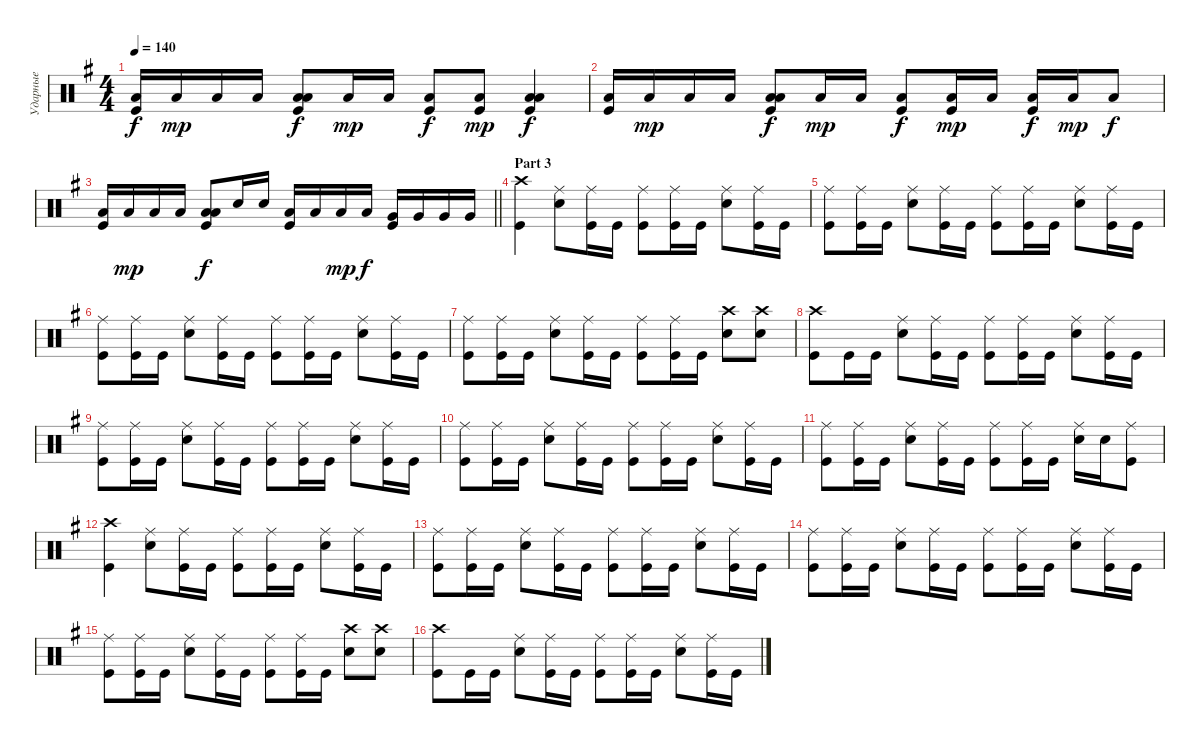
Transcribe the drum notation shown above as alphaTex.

\track ("Ударные" "Ударные") {instrument percussion}
\staff {score}
\articulation defaults
\ts (4 4)
\tempo 140
\clef neutral
\ks eminor
("Low Tom (hit)" "Kick (hit)").16{dy f} "Low Tom (hit)".16{dy mp} "Low Tom (hit)".16 "Low Tom (hit)".16 ("Low Tom (hit)" "Low Tom (hit)" "Kick (hit)").8{bd 120 dy f} "Low Tom (hit)".16{dy mp} "Low Tom (hit)".16 ("Kick (hit)" "Low Tom (hit)").8{dy f} ("Low Tom (hit)" "Kick (hit)").8{dy mp} ("Low Tom (hit)" "Low Tom (hit)" "Kick (hit)").4{bd 120 dy f} |
("Low Tom (hit)" "Kick (hit)").16 "Low Tom (hit)".16{dy mp} "Low Tom (hit)".16 "Low Tom (hit)".16 ("Low Tom (hit)" "Low Tom (hit)" "Kick (hit)").8{bd 120 dy f} "Low Tom (hit)".16{dy mp} "Low Tom (hit)".16 ("Kick (hit)" "Low Tom (hit)").8{dy f} ("Low Tom (hit)" "Kick (hit)").16{dy mp} "Low Tom (hit)".16 ("Low Tom (hit)" "Kick (hit)").16{bd 120 dy f} "Low Tom (hit)".16{dy mp} "Low Tom (hit)".8{dy f} |
\barLineRight lightlight
("Low Tom (hit)" "Kick (hit)").16 "Low Tom (hit)".16{dy mp} "Low Tom (hit)".16 "Low Tom (hit)".16 ("Low Tom (hit)" "Low Tom (hit)" "Kick (hit)").8{bd 120 dy f} "Snare (hit) 2".16 "Snare (hit) 2".16 ("Kick (hit)" "Low Tom (hit)").16 "Low Tom (hit)".16 "Low Tom (hit)".16{dy mp} "Low Tom (hit)".16{dy f} ("Very Low Tom (hit)" "Kick (hit)").16{bd 120} "Very Low Tom (hit)".16 "Very Low Tom (hit)".16 "Very Low Tom (hit)".16 |
\section ("" "Part 3")
("Kick (hit)" "Crash high (hit)").4 ("Snare (hit) 2" "Ride (middle)").8 ("Kick (hit)" "Ride (middle)").16 "Kick (hit)".16 ("Kick (hit)" "Ride (middle)").8 ("Kick (hit)" "Ride (middle)").16 "Kick (hit)".16 ("Snare (hit) 2" "Ride (middle)").8 ("Kick (hit)" "Ride (middle)").16 "Kick (hit)".16 |
("Kick (hit)" "Ride (middle)").8 ("Kick (hit)" "Ride (middle)").16 "Kick (hit)".16 ("Snare (hit) 2" "Ride (middle)").8 ("Kick (hit)" "Ride (middle)").16 "Kick (hit)".16 ("Kick (hit)" "Ride (middle)").8 ("Kick (hit)" "Ride (middle)").16 "Kick (hit)".16 ("Snare (hit) 2" "Ride (middle)").8 ("Kick (hit)" "Ride (middle)").16 "Kick (hit)".16 |
("Kick (hit)" "Ride (middle)").8 ("Kick (hit)" "Ride (middle)").16 "Kick (hit)".16 ("Snare (hit) 2" "Ride (middle)").8 ("Kick (hit)" "Ride (middle)").16 "Kick (hit)".16 ("Kick (hit)" "Ride (middle)").8 ("Kick (hit)" "Ride (middle)").16 "Kick (hit)".16 ("Snare (hit) 2" "Ride (middle)").8 ("Kick (hit)" "Ride (middle)").16 "Kick (hit)".16 |
("Kick (hit)" "Ride (middle)").8 ("Kick (hit)" "Ride (middle)").16 "Kick (hit)".16 ("Snare (hit) 2" "Ride (middle)").8 ("Kick (hit)" "Ride (middle)").16 "Kick (hit)".16 ("Kick (hit)" "Ride (middle)").8 ("Kick (hit)" "Ride (middle)").16 "Kick (hit)".16 ("Snare (hit) 2" "Crash high (hit)").8 ("Snare (hit) 2" "Crash high (hit)").8 |
("Kick (hit)" "Crash high (hit)").8 "Kick (hit)".16 "Kick (hit)".16 ("Snare (hit) 2" "Ride (middle)").8 ("Kick (hit)" "Ride (middle)").16 "Kick (hit)".16 ("Kick (hit)" "Ride (middle)").8 ("Kick (hit)" "Ride (middle)").16 "Kick (hit)".16 ("Snare (hit) 2" "Ride (middle)").8 ("Kick (hit)" "Ride (middle)").16 "Kick (hit)".16 |
("Kick (hit)" "Ride (middle)").8 ("Kick (hit)" "Ride (middle)").16 "Kick (hit)".16 ("Snare (hit) 2" "Ride (middle)").8 ("Kick (hit)" "Ride (middle)").16 "Kick (hit)".16 ("Kick (hit)" "Ride (middle)").8 ("Kick (hit)" "Ride (middle)").16 "Kick (hit)".16 ("Snare (hit) 2" "Ride (middle)").8 ("Kick (hit)" "Ride (middle)").16 "Kick (hit)".16 |
("Kick (hit)" "Ride (middle)").8 ("Kick (hit)" "Ride (middle)").16 "Kick (hit)".16 ("Snare (hit) 2" "Ride (middle)").8 ("Kick (hit)" "Ride (middle)").16 "Kick (hit)".16 ("Kick (hit)" "Ride (middle)").8 ("Kick (hit)" "Ride (middle)").16 "Kick (hit)".16 ("Snare (hit) 2" "Ride (middle)").8 ("Kick (hit)" "Ride (middle)").16 "Kick (hit)".16 |
("Kick (hit)" "Ride (middle)").8 ("Kick (hit)" "Ride (middle)").16 "Kick (hit)".16 ("Snare (hit) 2" "Ride (middle)").8 ("Kick (hit)" "Ride (middle)").16 "Kick (hit)".16 ("Kick (hit)" "Ride (middle)").8 ("Kick (hit)" "Ride (middle)").16 "Kick (hit)".16 ("Snare (hit) 2" "Ride (middle)").16 "Snare (hit) 2".16 ("Kick (hit)" "Ride (middle)").8 |
("Kick (hit)" "Crash high (hit)").4 ("Snare (hit) 2" "Ride (middle)").8 ("Kick (hit)" "Ride (middle)").16 "Kick (hit)".16 ("Kick (hit)" "Ride (middle)").8 ("Kick (hit)" "Ride (middle)").16 "Kick (hit)".16 ("Snare (hit) 2" "Ride (middle)").8 ("Kick (hit)" "Ride (middle)").16 "Kick (hit)".16 |
("Kick (hit)" "Ride (middle)").8 ("Kick (hit)" "Ride (middle)").16 "Kick (hit)".16 ("Snare (hit) 2" "Ride (middle)").8 ("Kick (hit)" "Ride (middle)").16 "Kick (hit)".16 ("Kick (hit)" "Ride (middle)").8 ("Kick (hit)" "Ride (middle)").16 "Kick (hit)".16 ("Snare (hit) 2" "Ride (middle)").8 ("Kick (hit)" "Ride (middle)").16 "Kick (hit)".16 |
("Kick (hit)" "Ride (middle)").8 ("Kick (hit)" "Ride (middle)").16 "Kick (hit)".16 ("Snare (hit) 2" "Ride (middle)").8 ("Kick (hit)" "Ride (middle)").16 "Kick (hit)".16 ("Kick (hit)" "Ride (middle)").8 ("Kick (hit)" "Ride (middle)").16 "Kick (hit)".16 ("Snare (hit) 2" "Ride (middle)").8 ("Kick (hit)" "Ride (middle)").16 "Kick (hit)".16 |
("Kick (hit)" "Ride (middle)").8 ("Kick (hit)" "Ride (middle)").16 "Kick (hit)".16 ("Snare (hit) 2" "Ride (middle)").8 ("Kick (hit)" "Ride (middle)").16 "Kick (hit)".16 ("Kick (hit)" "Ride (middle)").8 ("Kick (hit)" "Ride (middle)").16 "Kick (hit)".16 ("Snare (hit) 2" "Crash high (hit)").8 ("Snare (hit) 2" "Crash high (hit)").8 |
("Kick (hit)" "Crash high (hit)").8 "Kick (hit)".16 "Kick (hit)".16 ("Snare (hit) 2" "Ride (middle)").8 ("Kick (hit)" "Ride (middle)").16 "Kick (hit)".16 ("Kick (hit)" "Ride (middle)").8 ("Kick (hit)" "Ride (middle)").16 "Kick (hit)".16 ("Snare (hit) 2" "Ride (middle)").8 ("Kick (hit)" "Ride (middle)").16 "Kick (hit)".16
